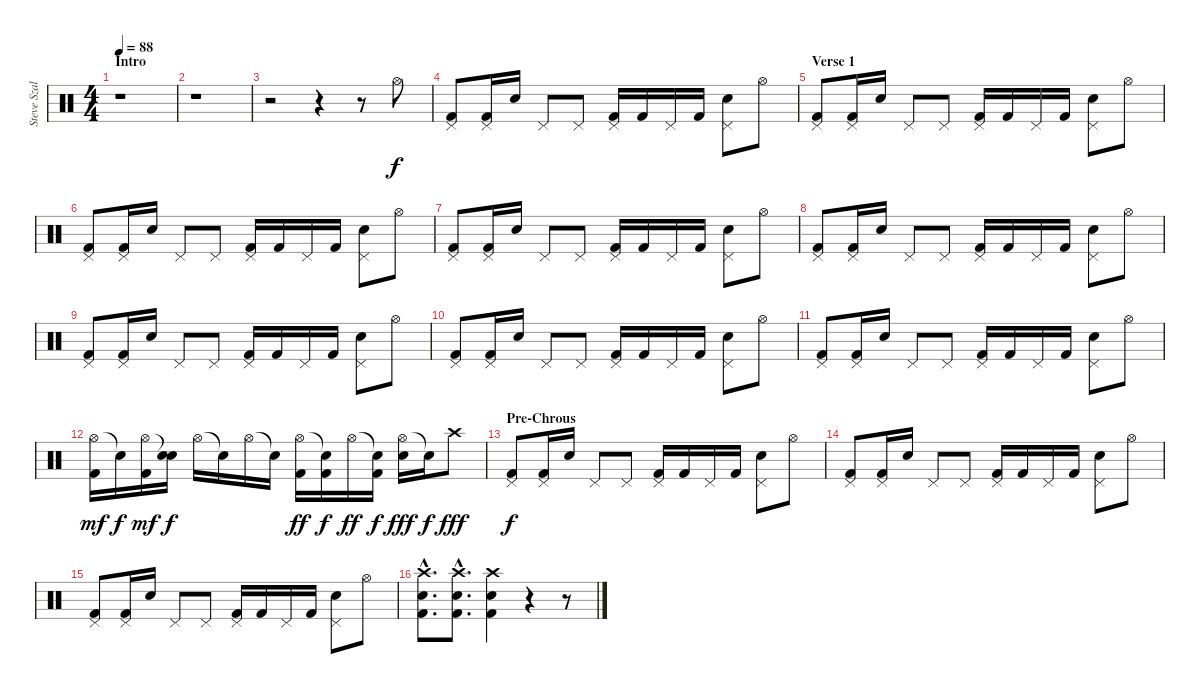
\track ("Steve Szalay " "Steve Szal") {instrument percussion}
\staff {score}
\articulation defaults
\ts (4 4)
\section ("" "Intro")
\tempo 88
\clef neutral
\ks c
r.1{dy f} |
r.1 |
r.2 r.4 r.8 "Hi-Hat (open)".8 |
("Pedal Hi-Hat (hit)" "Kick (hit) 2").8 ("Pedal Hi-Hat (hit)" "Kick (hit) 2").16 "Electric Snare (hit)".16 "Pedal Hi-Hat (hit)".8 "Pedal Hi-Hat (hit)".8 ("Pedal Hi-Hat (hit)" "Kick (hit) 2").16 "Kick (hit) 2".16 "Pedal Hi-Hat (hit)".16 "Kick (hit) 2".16 ("Pedal Hi-Hat (hit)" "Electric Snare (hit)").8 "Hi-Hat (open)".8 |
\section ("" "Verse 1")
("Pedal Hi-Hat (hit)" "Kick (hit) 2").8 ("Pedal Hi-Hat (hit)" "Kick (hit) 2").16 "Electric Snare (hit)".16 "Pedal Hi-Hat (hit)".8 "Pedal Hi-Hat (hit)".8 ("Pedal Hi-Hat (hit)" "Kick (hit) 2").16 "Kick (hit) 2".16 "Pedal Hi-Hat (hit)".16 "Kick (hit) 2".16 ("Pedal Hi-Hat (hit)" "Electric Snare (hit)").8 "Hi-Hat (open)".8 |
("Pedal Hi-Hat (hit)" "Kick (hit) 2").8 ("Pedal Hi-Hat (hit)" "Kick (hit) 2").16 "Electric Snare (hit)".16 "Pedal Hi-Hat (hit)".8 "Pedal Hi-Hat (hit)".8 ("Pedal Hi-Hat (hit)" "Kick (hit) 2").16 "Kick (hit) 2".16 "Pedal Hi-Hat (hit)".16 "Kick (hit) 2".16 ("Pedal Hi-Hat (hit)" "Electric Snare (hit)").8 "Hi-Hat (open)".8 |
("Pedal Hi-Hat (hit)" "Kick (hit) 2").8 ("Pedal Hi-Hat (hit)" "Kick (hit) 2").16 "Electric Snare (hit)".16 "Pedal Hi-Hat (hit)".8 "Pedal Hi-Hat (hit)".8 ("Pedal Hi-Hat (hit)" "Kick (hit) 2").16 "Kick (hit) 2".16 "Pedal Hi-Hat (hit)".16 "Kick (hit) 2".16 ("Pedal Hi-Hat (hit)" "Electric Snare (hit)").8 "Hi-Hat (open)".8 |
("Pedal Hi-Hat (hit)" "Kick (hit) 2").8 ("Pedal Hi-Hat (hit)" "Kick (hit) 2").16 "Electric Snare (hit)".16 "Pedal Hi-Hat (hit)".8 "Pedal Hi-Hat (hit)".8 ("Pedal Hi-Hat (hit)" "Kick (hit) 2").16 "Kick (hit) 2".16 "Pedal Hi-Hat (hit)".16 "Kick (hit) 2".16 ("Pedal Hi-Hat (hit)" "Electric Snare (hit)").8 "Hi-Hat (open)".8 |
("Pedal Hi-Hat (hit)" "Kick (hit) 2").8 ("Pedal Hi-Hat (hit)" "Kick (hit) 2").16 "Electric Snare (hit)".16 "Pedal Hi-Hat (hit)".8 "Pedal Hi-Hat (hit)".8 ("Pedal Hi-Hat (hit)" "Kick (hit) 2").16 "Kick (hit) 2".16 "Pedal Hi-Hat (hit)".16 "Kick (hit) 2".16 ("Pedal Hi-Hat (hit)" "Electric Snare (hit)").8 "Hi-Hat (open)".8 |
("Pedal Hi-Hat (hit)" "Kick (hit) 2").8 ("Pedal Hi-Hat (hit)" "Kick (hit) 2").16 "Electric Snare (hit)".16 "Pedal Hi-Hat (hit)".8 "Pedal Hi-Hat (hit)".8 ("Pedal Hi-Hat (hit)" "Kick (hit) 2").16 "Kick (hit) 2".16 "Pedal Hi-Hat (hit)".16 "Kick (hit) 2".16 ("Pedal Hi-Hat (hit)" "Electric Snare (hit)").8 "Hi-Hat (open)".8 |
("Pedal Hi-Hat (hit)" "Kick (hit) 2").8 ("Pedal Hi-Hat (hit)" "Kick (hit) 2").16 "Electric Snare (hit)".16 "Pedal Hi-Hat (hit)".8 "Pedal Hi-Hat (hit)".8 ("Pedal Hi-Hat (hit)" "Kick (hit) 2").16 "Kick (hit) 2".16 "Pedal Hi-Hat (hit)".16 "Kick (hit) 2".16 ("Pedal Hi-Hat (hit)" "Electric Snare (hit)").8 "Hi-Hat (open)".8 |
("Hi-Hat (open)" "Kick (hit) 2").16{dy mf} "Snare (hit)"{t}.16{dy f} ("Hi-Hat (open)" "Kick (hit) 2").16{dy mf} ("Snare (hit)"{t} "Electric Snare (hit)").16{dy f} "Hi-Hat (open)".16 "Snare (hit)"{t}.16 "Hi-Hat (open)".16 "Snare (hit)"{t}.16 ("Hi-Hat (open)" "Kick (hit) 2").16{dy ff} ("Snare (hit)"{t} "Kick (hit) 2").16{dy f} "Hi-Hat (open)".16{dy ff} ("Snare (hit)"{t} "Kick (hit) 2").16{dy f} ("Hi-Hat (open)" "Electric Snare (hit)").16{dy fff} "Snare (hit)"{t}.16{dy f} "Crash high (hit)".8{dy fff} |
\section ("" "Pre-Chrous")
("Pedal Hi-Hat (hit)" "Kick (hit) 2").8{dy f} ("Pedal Hi-Hat (hit)" "Kick (hit) 2").16 "Electric Snare (hit)".16 "Pedal Hi-Hat (hit)".8 "Pedal Hi-Hat (hit)".8 ("Pedal Hi-Hat (hit)" "Kick (hit) 2").16 "Kick (hit) 2".16 "Pedal Hi-Hat (hit)".16 "Kick (hit) 2".16 ("Pedal Hi-Hat (hit)" "Electric Snare (hit)").8 "Hi-Hat (open)".8 |
("Pedal Hi-Hat (hit)" "Kick (hit) 2").8 ("Pedal Hi-Hat (hit)" "Kick (hit) 2").16 "Electric Snare (hit)".16 "Pedal Hi-Hat (hit)".8 "Pedal Hi-Hat (hit)".8 ("Pedal Hi-Hat (hit)" "Kick (hit) 2").16 "Kick (hit) 2".16 "Pedal Hi-Hat (hit)".16 "Kick (hit) 2".16 ("Pedal Hi-Hat (hit)" "Electric Snare (hit)").8 "Hi-Hat (open)".8 |
("Pedal Hi-Hat (hit)" "Kick (hit) 2").8 ("Pedal Hi-Hat (hit)" "Kick (hit) 2").16 "Electric Snare (hit)".16 "Pedal Hi-Hat (hit)".8 "Pedal Hi-Hat (hit)".8 ("Pedal Hi-Hat (hit)" "Kick (hit) 2").16 "Kick (hit) 2".16 "Pedal Hi-Hat (hit)".16 "Kick (hit) 2".16 ("Pedal Hi-Hat (hit)" "Electric Snare (hit)").8 "Hi-Hat (open)".8 |
("Crash high (hit)"{hac} "Electric Snare (hit)"{hac} "Kick (hit) 2"{hac}).8{d} ("Crash high (hit)"{hac} "Electric Snare (hit)"{hac} "Kick (hit) 2"{hac}).8{d} ("Crash high (hit)" "Electric Snare (hit)" "Kick (hit) 2").4 r.4 r.8
